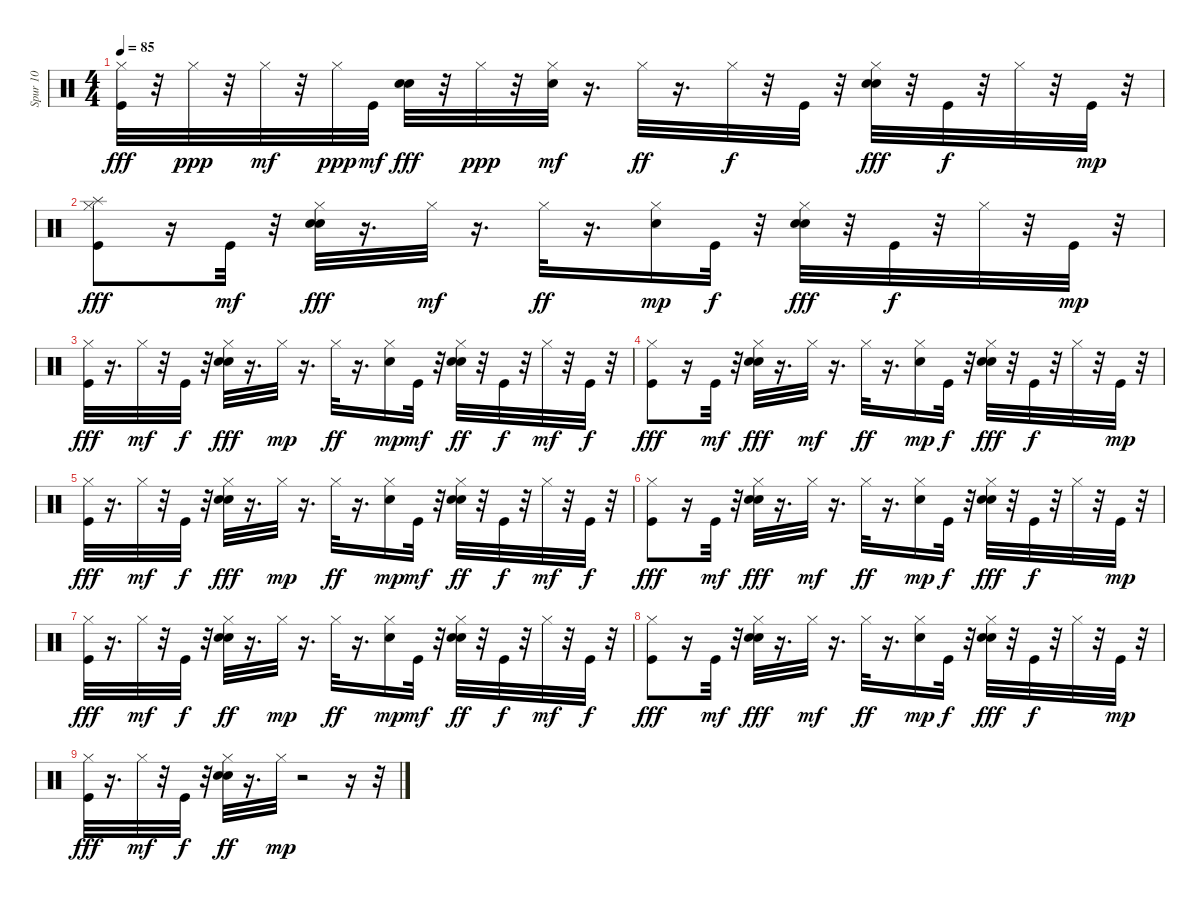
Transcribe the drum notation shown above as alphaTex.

\track ("Spur 10" "Spur 10") {instrument percussion}
\staff {score}
\articulation defaults
\ts (4 4)
\tempo 85
\clef neutral
\ks c
("Kick (hit)" "Hi-Hat (closed)").32{dy fff} r.32 "Hi-Hat (closed)".32{dy ppp} r.32 "Hi-Hat (closed)".32{dy mf} r.32 "Hi-Hat (closed)".32{dy ppp} "Kick (hit)".32{dy mf} ("Electric Snare (hit)" "Hand Clap (hit)").32{dy fff} r.32 "Hi-Hat (closed)".32{dy ppp} r.32 ("Hand Clap (hit)" "Hi-Hat (closed)").32{dy mf} r.16{d} "Hi-Hat (closed)".32{dy ff} r.16{d} "Hi-Hat (closed)".32{dy f} r.32 "Kick (hit)".32 r.32 ("Electric Snare (hit)" "Hi-Hat (closed)" "Hand Clap (hit)").32{dy fff} r.32 "Kick (hit)".32{dy f} r.32 "Hi-Hat (closed)".32 r.32 "Kick (hit)".32{dy mp} r.32 |
("Kick (hit)" "Hi-Hat (closed)" "Splash (hit)").8{dy fff} r.16 "Kick (hit)".32{dy mf} r.32 ("Hi-Hat (closed)" "Electric Snare (hit)" "Hand Clap (hit)").32{dy fff} r.16{d} "Hi-Hat (closed)".32{dy mf} r.16{d} "Hi-Hat (closed)".32{dy ff} r.16{d} ("Hi-Hat (closed)" "Snare (hit)").16{dy mp} "Kick (hit)".32{dy f} r.32 ("Hi-Hat (closed)" "Hand Clap (hit)" "Electric Snare (hit)").32{dy fff} r.32 "Kick (hit)".32{dy f} r.32 "Hi-Hat (closed)".32 r.32 "Kick (hit)".32{dy mp} r.32 |
("Hi-Hat (closed)" "Kick (hit)").32{dy fff} r.16{d} "Hi-Hat (closed)".32{dy mf} r.32 "Kick (hit)".32{dy f} r.32 ("Electric Snare (hit)" "Hi-Hat (closed)" "Hand Clap (hit)").32{dy fff} r.16{d} "Hi-Hat (closed)".32{dy mp} r.16{d} "Hi-Hat (closed)".32{dy ff} r.16{d} ("Hi-Hat (closed)" "Snare (hit)").16{dy mp} "Kick (hit)".32{dy mf} r.32 ("Hand Clap (hit)" "Hi-Hat (closed)" "Electric Snare (hit)").32{dy ff} r.32 "Kick (hit)".32{dy f} r.32 "Hi-Hat (closed)".32{dy mf} r.32 "Kick (hit)".32{dy f} r.32 |
("Hi-Hat (closed)" "Kick (hit)").8{dy fff} r.16 "Kick (hit)".32{dy mf} r.32 ("Electric Snare (hit)" "Hi-Hat (closed)" "Hand Clap (hit)").32{dy fff} r.16{d} "Hi-Hat (closed)".32{dy mf} r.16{d} "Hi-Hat (closed)".32{dy ff} r.16{d} ("Hi-Hat (closed)" "Snare (hit)").16{dy mp} "Kick (hit)".32{dy f} r.32 ("Hand Clap (hit)" "Hi-Hat (closed)" "Electric Snare (hit)").32{dy fff} r.32 "Kick (hit)".32{dy f} r.32 "Hi-Hat (closed)".32 r.32 "Kick (hit)".32{dy mp} r.32 |
("Kick (hit)" "Hi-Hat (closed)").32{dy fff} r.16{d} "Hi-Hat (closed)".32{dy mf} r.32 "Kick (hit)".32{dy f} r.32 ("Electric Snare (hit)" "Hi-Hat (closed)" "Hand Clap (hit)").32{dy fff} r.16{d} "Hi-Hat (closed)".32{dy mp} r.16{d} "Hi-Hat (closed)".32{dy ff} r.16{d} ("Hi-Hat (closed)" "Snare (hit)").16{dy mp} "Kick (hit)".32{dy mf} r.32 ("Hi-Hat (closed)" "Hand Clap (hit)" "Electric Snare (hit)").32{dy ff} r.32 "Kick (hit)".32{dy f} r.32 "Hi-Hat (closed)".32{dy mf} r.32 "Kick (hit)".32{dy f} r.32 |
("Kick (hit)" "Hi-Hat (closed)").8{dy fff} r.16 "Kick (hit)".32{dy mf} r.32 ("Hi-Hat (closed)" "Electric Snare (hit)" "Hand Clap (hit)").32{dy fff} r.16{d} "Hi-Hat (closed)".32{dy mf} r.16{d} "Hi-Hat (closed)".32{dy ff} r.16{d} ("Hi-Hat (closed)" "Snare (hit)").16{dy mp} "Kick (hit)".32{dy f} r.32 ("Hand Clap (hit)" "Hi-Hat (closed)" "Electric Snare (hit)").32{dy fff} r.32 "Kick (hit)".32{dy f} r.32 "Hi-Hat (closed)".32 r.32 "Kick (hit)".32{dy mp} r.32 |
("Kick (hit)" "Hi-Hat (closed)").32{dy fff} r.16{d} "Hi-Hat (closed)".32{dy mf} r.32 "Kick (hit)".32{dy f} r.32 ("Hi-Hat (closed)" "Electric Snare (hit)" "Hand Clap (hit)").32{dy ff} r.16{d} "Hi-Hat (closed)".32{dy mp} r.16{d} "Hi-Hat (closed)".32{dy ff} r.16{d} ("Hi-Hat (closed)" "Snare (hit)").16{dy mp} "Kick (hit)".32{dy mf} r.32 ("Hand Clap (hit)" "Hi-Hat (closed)" "Electric Snare (hit)").32{dy ff} r.32 "Kick (hit)".32{dy f} r.32 "Hi-Hat (closed)".32{dy mf} r.32 "Kick (hit)".32{dy f} r.32 |
("Hi-Hat (closed)" "Kick (hit)").8{dy fff} r.16 "Kick (hit)".32{dy mf} r.32 ("Hi-Hat (closed)" "Electric Snare (hit)" "Hand Clap (hit)").32{dy fff} r.16{d} "Hi-Hat (closed)".32{dy mf} r.16{d} "Hi-Hat (closed)".32{dy ff} r.16{d} ("Hi-Hat (closed)" "Snare (hit)").16{dy mp} "Kick (hit)".32{dy f} r.32 ("Electric Snare (hit)" "Hi-Hat (closed)" "Hand Clap (hit)").32{dy fff} r.32 "Kick (hit)".32{dy f} r.32 "Hi-Hat (closed)".32 r.32 "Kick (hit)".32{dy mp} r.32 |
("Hi-Hat (closed)" "Kick (hit)").32{dy fff} r.16{d} "Hi-Hat (closed)".32{dy mf} r.32 "Kick (hit)".32{dy f} r.32 ("Hi-Hat (closed)" "Electric Snare (hit)" "Hand Clap (hit)").32{dy ff} r.16{d} "Hi-Hat (closed)".32{dy mp} r.2 r.16 r.32
